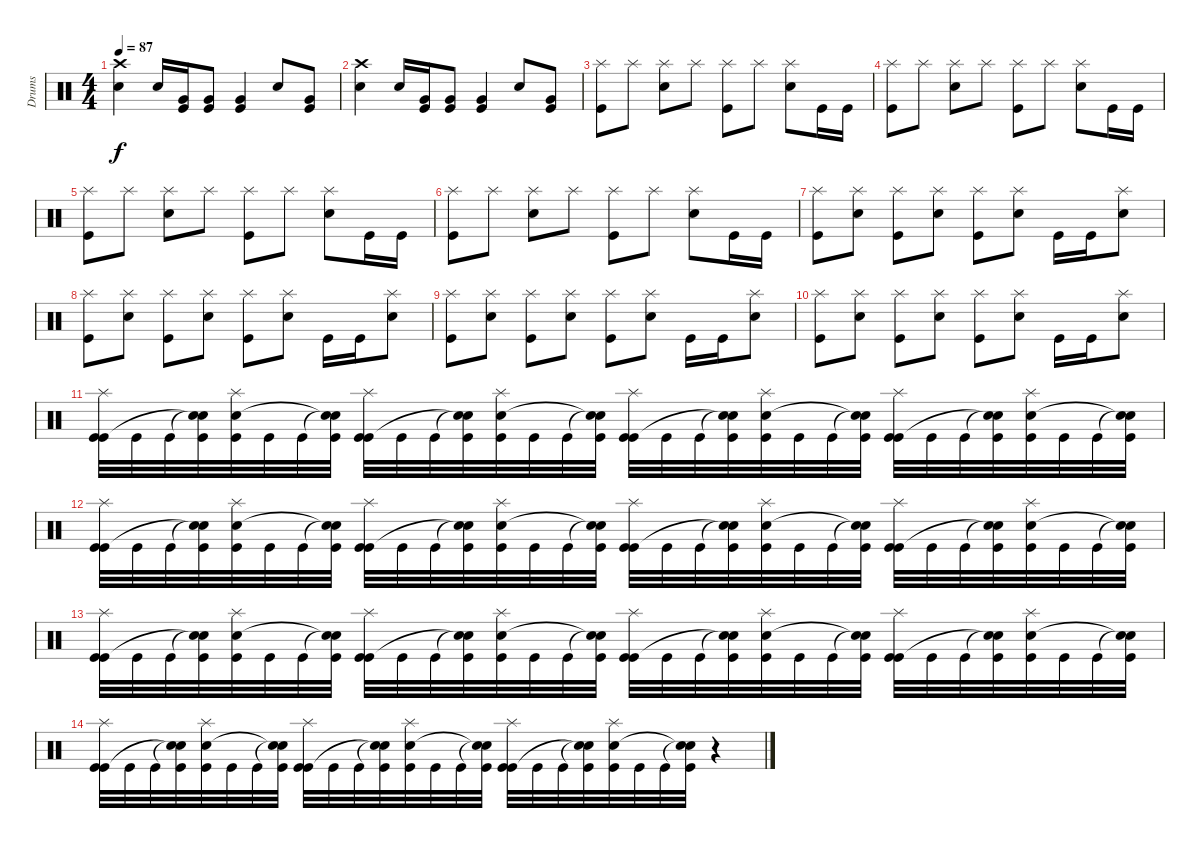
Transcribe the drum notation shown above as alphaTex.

\track ("Drums" "Drums") {instrument percussion}
\staff {score}
\articulation defaults
\ts (4 4)
\tempo 87
\clef neutral
\ks c
("Crash high (hit)" "Electric Snare (hit)").4{dy f} "Electric Snare (hit)".16 ("Kick (hit)" "Very Low Tom (hit)").16 ("Kick (hit)" "Very Low Tom (hit)").8 ("Kick (hit)" "Very Low Tom (hit)").4 "Electric Snare (hit)".8 ("Kick (hit)" "Very Low Tom (hit)").8 |
("Crash high (hit)" "Electric Snare (hit)").4 "Electric Snare (hit)".16 ("Kick (hit)" "Very Low Tom (hit)").16 ("Kick (hit)" "Very Low Tom (hit)").8 ("Kick (hit)" "Very Low Tom (hit)").4 "Electric Snare (hit)".8 ("Kick (hit)" "Very Low Tom (hit)").8 |
("Splash (hit)" "Kick (hit)").8 "Splash (hit)".8 ("Splash (hit)" "Electric Snare (hit)").8 "Splash (hit)".8 ("Splash (hit)" "Kick (hit)").8 "Splash (hit)".8 ("Splash (hit)" "Electric Snare (hit)").8 "Kick (hit)".16 "Kick (hit)".16 |
("Splash (hit)" "Kick (hit)").8 "Splash (hit)".8 ("Splash (hit)" "Electric Snare (hit)").8 "Splash (hit)".8 ("Splash (hit)" "Kick (hit)").8 "Splash (hit)".8 ("Splash (hit)" "Electric Snare (hit)").8 "Kick (hit)".16 "Kick (hit)".16 |
("Splash (hit)" "Kick (hit)").8 "Splash (hit)".8 ("Splash (hit)" "Electric Snare (hit)").8 "Splash (hit)".8 ("Splash (hit)" "Kick (hit)").8 "Splash (hit)".8 ("Splash (hit)" "Electric Snare (hit)").8 "Kick (hit)".16 "Kick (hit)".16 |
("Splash (hit)" "Kick (hit)").8 "Splash (hit)".8 ("Splash (hit)" "Electric Snare (hit)").8 "Splash (hit)".8 ("Splash (hit)" "Kick (hit)").8 "Splash (hit)".8 ("Splash (hit)" "Electric Snare (hit)").8 "Kick (hit)".16 "Kick (hit)".16 |
("Splash (hit)" "Kick (hit)").8 ("Splash (hit)" "Electric Snare (hit)").8 ("Splash (hit)" "Kick (hit)").8 ("Splash (hit)" "Electric Snare (hit)").8 ("Splash (hit)" "Kick (hit)").8 ("Splash (hit)" "Electric Snare (hit)").8 "Kick (hit)".16 "Kick (hit)".16 ("Splash (hit)" "Electric Snare (hit)").8 |
("Splash (hit)" "Kick (hit)").8 ("Splash (hit)" "Electric Snare (hit)").8 ("Splash (hit)" "Kick (hit)").8 ("Splash (hit)" "Electric Snare (hit)").8 ("Splash (hit)" "Kick (hit)").8 ("Splash (hit)" "Electric Snare (hit)").8 "Kick (hit)".16 "Kick (hit)".16 ("Splash (hit)" "Electric Snare (hit)").8 |
("Splash (hit)" "Kick (hit)").8 ("Splash (hit)" "Electric Snare (hit)").8 ("Splash (hit)" "Kick (hit)").8 ("Splash (hit)" "Electric Snare (hit)").8 ("Splash (hit)" "Kick (hit)").8 ("Splash (hit)" "Electric Snare (hit)").8 "Kick (hit)".16 "Kick (hit)".16 ("Splash (hit)" "Electric Snare (hit)").8 |
("Splash (hit)" "Kick (hit)").8 ("Splash (hit)" "Electric Snare (hit)").8 ("Splash (hit)" "Kick (hit)").8 ("Splash (hit)" "Electric Snare (hit)").8 ("Splash (hit)" "Kick (hit)").8 ("Splash (hit)" "Electric Snare (hit)").8 "Kick (hit)".16 "Kick (hit)".16 ("Splash (hit)" "Electric Snare (hit)").8 |
("Splash (hit)" "Kick (hit)" "Kick (hit)").32 "Kick (hit)".32 "Kick (hit)".32 ("Snare (hit)"{t} "Snare (hit)"{t} "Kick (hit)").32 ("Splash (hit)" "Electric Snare (hit)" "Kick (hit)").32 "Kick (hit)".32 "Kick (hit)".32 ("Snare (hit)"{t} "Snare (hit)"{t} "Kick (hit)").32 ("Splash (hit)" "Kick (hit)" "Kick (hit)").32 "Kick (hit)".32 "Kick (hit)".32 ("Snare (hit)"{t} "Snare (hit)"{t} "Kick (hit)").32 ("Splash (hit)" "Electric Snare (hit)" "Kick (hit)").32 "Kick (hit)".32 "Kick (hit)".32 ("Snare (hit)"{t} "Snare (hit)"{t} "Kick (hit)").32 ("Splash (hit)" "Kick (hit)" "Kick (hit)").32 "Kick (hit)".32 "Kick (hit)".32 ("Snare (hit)"{t} "Snare (hit)"{t} "Kick (hit)").32 ("Splash (hit)" "Electric Snare (hit)" "Kick (hit)").32 "Kick (hit)".32 "Kick (hit)".32 ("Snare (hit)"{t} "Snare (hit)"{t} "Kick (hit)").32 ("Splash (hit)" "Kick (hit)" "Kick (hit)").32 "Kick (hit)".32 "Kick (hit)".32 ("Snare (hit)"{t} "Snare (hit)"{t} "Kick (hit)").32 ("Splash (hit)" "Electric Snare (hit)" "Kick (hit)").32 "Kick (hit)".32 "Kick (hit)".32 ("Snare (hit)"{t} "Snare (hit)"{t} "Kick (hit)").32 |
("Splash (hit)" "Kick (hit)" "Kick (hit)").32 "Kick (hit)".32 "Kick (hit)".32 ("Snare (hit)"{t} "Snare (hit)"{t} "Kick (hit)").32 ("Splash (hit)" "Electric Snare (hit)" "Kick (hit)").32 "Kick (hit)".32 "Kick (hit)".32 ("Snare (hit)"{t} "Snare (hit)"{t} "Kick (hit)").32 ("Splash (hit)" "Kick (hit)" "Kick (hit)").32 "Kick (hit)".32 "Kick (hit)".32 ("Snare (hit)"{t} "Snare (hit)"{t} "Kick (hit)").32 ("Splash (hit)" "Electric Snare (hit)" "Kick (hit)").32 "Kick (hit)".32 "Kick (hit)".32 ("Snare (hit)"{t} "Snare (hit)"{t} "Kick (hit)").32 ("Splash (hit)" "Kick (hit)" "Kick (hit)").32 "Kick (hit)".32 "Kick (hit)".32 ("Snare (hit)"{t} "Snare (hit)"{t} "Kick (hit)").32 ("Splash (hit)" "Electric Snare (hit)" "Kick (hit)").32 "Kick (hit)".32 "Kick (hit)".32 ("Snare (hit)"{t} "Snare (hit)"{t} "Kick (hit)").32 ("Splash (hit)" "Kick (hit)" "Kick (hit)").32 "Kick (hit)".32 "Kick (hit)".32 ("Snare (hit)"{t} "Snare (hit)"{t} "Kick (hit)").32 ("Splash (hit)" "Electric Snare (hit)" "Kick (hit)").32 "Kick (hit)".32 "Kick (hit)".32 ("Snare (hit)"{t} "Snare (hit)"{t} "Kick (hit)").32 |
("Splash (hit)" "Kick (hit)" "Kick (hit)").32 "Kick (hit)".32 "Kick (hit)".32 ("Snare (hit)"{t} "Snare (hit)"{t} "Kick (hit)").32 ("Splash (hit)" "Electric Snare (hit)" "Kick (hit)").32 "Kick (hit)".32 "Kick (hit)".32 ("Snare (hit)"{t} "Snare (hit)"{t} "Kick (hit)").32 ("Splash (hit)" "Kick (hit)" "Kick (hit)").32 "Kick (hit)".32 "Kick (hit)".32 ("Snare (hit)"{t} "Snare (hit)"{t} "Kick (hit)").32 ("Splash (hit)" "Electric Snare (hit)" "Kick (hit)").32 "Kick (hit)".32 "Kick (hit)".32 ("Snare (hit)"{t} "Snare (hit)"{t} "Kick (hit)").32 ("Splash (hit)" "Kick (hit)" "Kick (hit)").32 "Kick (hit)".32 "Kick (hit)".32 ("Snare (hit)"{t} "Snare (hit)"{t} "Kick (hit)").32 ("Splash (hit)" "Electric Snare (hit)" "Kick (hit)").32 "Kick (hit)".32 "Kick (hit)".32 ("Snare (hit)"{t} "Snare (hit)"{t} "Kick (hit)").32 ("Splash (hit)" "Kick (hit)" "Kick (hit)").32 "Kick (hit)".32 "Kick (hit)".32 ("Snare (hit)"{t} "Snare (hit)"{t} "Kick (hit)").32 ("Splash (hit)" "Electric Snare (hit)" "Kick (hit)").32 "Kick (hit)".32 "Kick (hit)".32 ("Snare (hit)"{t} "Snare (hit)"{t} "Kick (hit)").32 |
("Splash (hit)" "Kick (hit)" "Kick (hit)").32 "Kick (hit)".32 "Kick (hit)".32 ("Snare (hit)"{t} "Snare (hit)"{t} "Kick (hit)").32 ("Splash (hit)" "Electric Snare (hit)" "Kick (hit)").32 "Kick (hit)".32 "Kick (hit)".32 ("Snare (hit)"{t} "Snare (hit)"{t} "Kick (hit)").32 ("Splash (hit)" "Kick (hit)" "Kick (hit)").32 "Kick (hit)".32 "Kick (hit)".32 ("Snare (hit)"{t} "Snare (hit)"{t} "Kick (hit)").32 ("Splash (hit)" "Electric Snare (hit)" "Kick (hit)").32 "Kick (hit)".32 "Kick (hit)".32 ("Snare (hit)"{t} "Snare (hit)"{t} "Kick (hit)").32 ("Splash (hit)" "Kick (hit)" "Kick (hit)").32 "Kick (hit)".32 "Kick (hit)".32 ("Snare (hit)"{t} "Snare (hit)"{t} "Kick (hit)").32 ("Splash (hit)" "Electric Snare (hit)" "Kick (hit)").32 "Kick (hit)".32 "Kick (hit)".32 ("Snare (hit)"{t} "Snare (hit)"{t} "Kick (hit)").32 r.4
